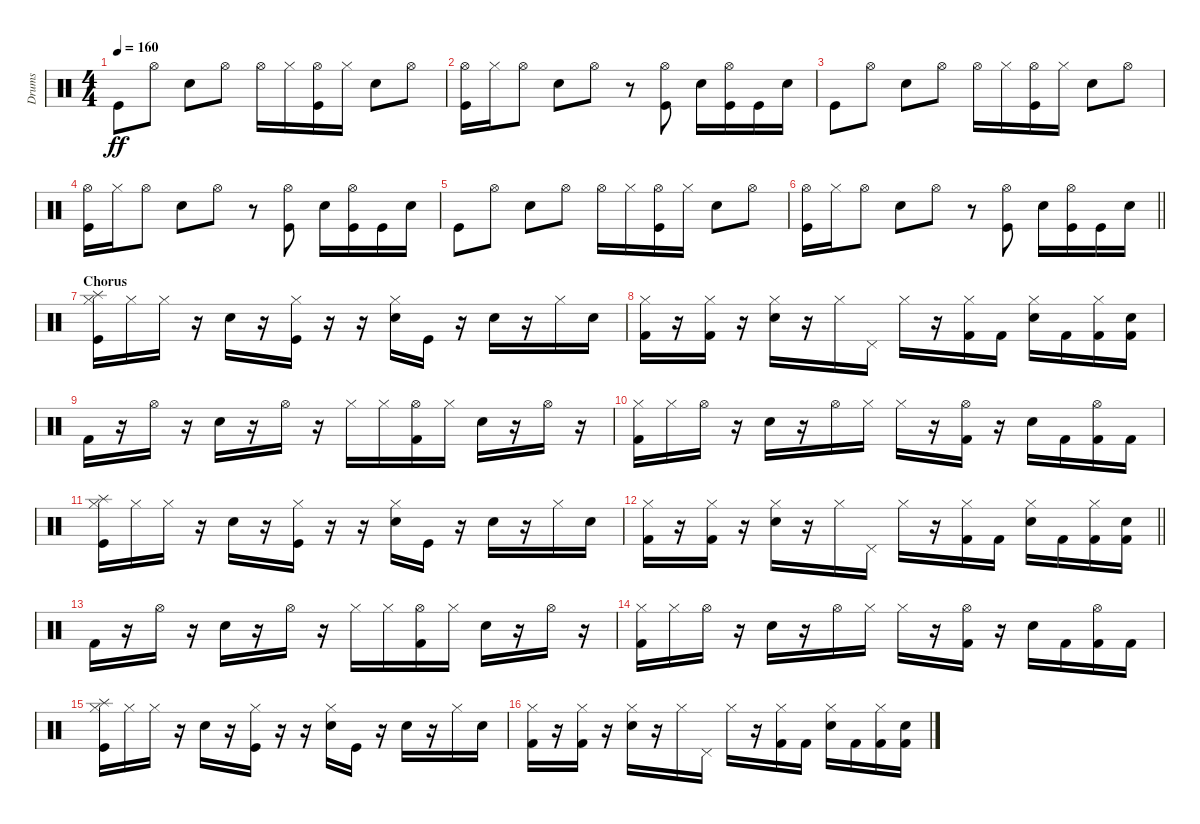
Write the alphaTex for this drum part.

\track ("Drums" "Drums") {instrument percussion}
\staff {score}
\articulation defaults
\ts (4 4)
\tempo 160
\clef neutral
\ks c "Kick (hit)".8{dy ff} "Hi-Hat (open)".8 "Snare (hit) 2".8 "Hi-Hat (open)".8 "Hi-Hat (open)".16 "Hi-Hat (closed)".16
("Kick (hit)" "Hi-Hat (open)").16 "Hi-Hat (closed)".16 "Snare (hit) 2".8 "Hi-Hat (open)".8 |
("Kick (hit)" "Hi-Hat (open)").16 "Hi-Hat (closed)".16 "Hi-Hat (open)".8 "Snare (hit) 2".8 "Hi-Hat (open)".8 r.8 ("Kick (hit)" "Hi-Hat (open)").8 "Snare (hit) 2".16 ("Kick (hit)" "Hi-Hat (open)").16 "Kick (hit)".16 "Snare (hit) 2".16 |
"Kick (hit)".8 "Hi-Hat (open)".8 "Snare (hit) 2".8 "Hi-Hat (open)".8 "Hi-Hat (open)".16 "Hi-Hat (closed)".16 ("Kick (hit)" "Hi-Hat (open)").16 "Hi-Hat (closed)".16 "Snare (hit) 2".8 "Hi-Hat (open)".8 |
("Kick (hit)" "Hi-Hat (open)").16 "Hi-Hat (closed)".16 "Hi-Hat (open)".8 "Snare (hit) 2".8 "Hi-Hat (open)".8 r.8 ("Kick (hit)" "Hi-Hat (open)").8 "Snare (hit) 2".16 ("Kick (hit)" "Hi-Hat (open)").16 "Kick (hit)".16 "Snare (hit) 2".16 |
"Kick (hit)".8 "Hi-Hat (open)".8 "Snare (hit) 2".8 "Hi-Hat (open)".8 "Hi-Hat (open)".16 "Hi-Hat (closed)".16 ("Kick (hit)" "Hi-Hat (open)").16 "Hi-Hat (closed)".16 "Snare (hit) 2".8 "Hi-Hat (open)".8 |
\barLineRight lightlight
("Kick (hit)" "Hi-Hat (open)").16 "Hi-Hat (closed)".16 "Hi-Hat (open)".8 "Snare (hit) 2".8 "Hi-Hat (open)".8 r.8 ("Kick (hit)" "Hi-Hat (open)").8 "Snare (hit) 2".16 ("Kick (hit)" "Hi-Hat (open)").16 "Kick (hit)".16 "Snare (hit) 2".16 |
\section ("" "Chorus")
("Kick (hit)" "Hi-Hat (closed)" "Splash (hit)").16 "Hi-Hat (closed)".16 "Hi-Hat (closed)".16 r.16 "Snare (hit) 2".16 r.16 ("Kick (hit)" "Hi-Hat (closed)").16 r.16 r.16 ("Snare (hit) 2" "Hi-Hat (closed)").16 "Kick (hit)".16 r.16 "Snare (hit) 2".16 r.16 "Hi-Hat (closed)".16 "Snare (hit) 2".16 |
("Kick (hit) 2" "Hi-Hat (closed)").16 r.16 ("Kick (hit) 2" "Hi-Hat (closed)").16 r.16 ("Snare (hit) 2" "Hi-Hat (closed)").16 r.16 "Hi-Hat (closed)".16 "Pedal Hi-Hat (hit)".16 "Hi-Hat (closed)".16 r.16 ("Kick (hit) 2" "Hi-Hat (closed)").16 "Kick (hit) 2".16 ("Snare (hit) 2" "Hi-Hat (closed)").16 "Kick (hit) 2".16 ("Kick (hit) 2" "Hi-Hat (closed)").16 ("Kick (hit) 2" "Snare (hit) 2").16 |
"Kick (hit) 2".16 r.16 "Hi-Hat (open)".16 r.16 "Snare (hit) 2".16 r.16 "Hi-Hat (open)".16 r.16 "Hi-Hat (closed)".16 "Hi-Hat (closed)".16 ("Kick (hit) 2" "Hi-Hat (open)").16 "Hi-Hat (closed)".16 "Snare (hit) 2".16 r.16 "Hi-Hat (open)".16 r.16 |
("Kick (hit) 2" "Hi-Hat (closed)").16 "Hi-Hat (closed)".16 "Hi-Hat (open)".16 r.16 "Snare (hit) 2".16 r.16 "Hi-Hat (open)".16 "Hi-Hat (closed)".16 "Hi-Hat (closed)".16 r.16 ("Kick (hit) 2" "Hi-Hat (open)").16 r.16 "Snare (hit) 2".16 "Kick (hit) 2".16 ("Kick (hit) 2" "Hi-Hat (open)").16 "Kick (hit) 2".16 |
("Kick (hit)" "Hi-Hat (closed)" "Splash (hit)").16 "Hi-Hat (closed)".16 "Hi-Hat (closed)".16 r.16 "Snare (hit) 2".16 r.16 ("Kick (hit)" "Hi-Hat (closed)").16 r.16 r.16 ("Snare (hit) 2" "Hi-Hat (closed)").16 "Kick (hit)".16 r.16 "Snare (hit) 2".16 r.16 "Hi-Hat (closed)".16 "Snare (hit) 2".16 |
\barLineRight lightlight
("Kick (hit) 2" "Hi-Hat (closed)").16 r.16 ("Kick (hit) 2" "Hi-Hat (closed)").16 r.16 ("Snare (hit) 2" "Hi-Hat (closed)").16 r.16 "Hi-Hat (closed)".16 "Pedal Hi-Hat (hit)".16 "Hi-Hat (closed)".16 r.16 ("Kick (hit) 2" "Hi-Hat (closed)").16 "Kick (hit) 2".16 ("Snare (hit) 2" "Hi-Hat (closed)").16 "Kick (hit) 2".16 ("Kick (hit) 2" "Hi-Hat (closed)").16 ("Kick (hit) 2" "Snare (hit) 2").16 |
"Kick (hit) 2".16 r.16 "Hi-Hat (open)".16 r.16 "Snare (hit) 2".16 r.16 "Hi-Hat (open)".16 r.16 "Hi-Hat (closed)".16 "Hi-Hat (closed)".16 ("Kick (hit) 2" "Hi-Hat (open)").16 "Hi-Hat (closed)".16 "Snare (hit) 2".16 r.16 "Hi-Hat (open)".16 r.16 |
("Kick (hit) 2" "Hi-Hat (closed)").16 "Hi-Hat (closed)".16 "Hi-Hat (open)".16 r.16 "Snare (hit) 2".16 r.16 "Hi-Hat (open)".16 "Hi-Hat (closed)".16 "Hi-Hat (closed)".16 r.16 ("Kick (hit) 2" "Hi-Hat (open)").16 r.16 "Snare (hit) 2".16 "Kick (hit) 2".16 ("Kick (hit) 2" "Hi-Hat (open)").16 "Kick (hit) 2".16 |
("Kick (hit)" "Hi-Hat (closed)" "Splash (hit)").16 "Hi-Hat (closed)".16 "Hi-Hat (closed)".16 r.16 "Snare (hit) 2".16 r.16 ("Kick (hit)" "Hi-Hat (closed)").16 r.16 r.16 ("Snare (hit) 2" "Hi-Hat (closed)").16 "Kick (hit)".16 r.16 "Snare (hit) 2".16 r.16 "Hi-Hat (closed)".16 "Snare (hit) 2".16 |
("Kick (hit) 2" "Hi-Hat (closed)").16 r.16 ("Kick (hit) 2" "Hi-Hat (closed)").16 r.16 ("Snare (hit) 2" "Hi-Hat (closed)").16 r.16 "Hi-Hat (closed)".16 "Pedal Hi-Hat (hit)".16 "Hi-Hat (closed)".16 r.16 ("Kick (hit) 2" "Hi-Hat (closed)").16 "Kick (hit) 2".16 ("Snare (hit) 2" "Hi-Hat (closed)").16 "Kick (hit) 2".16 ("Kick (hit) 2" "Hi-Hat (closed)").16 ("Kick (hit) 2" "Snare (hit) 2").16
